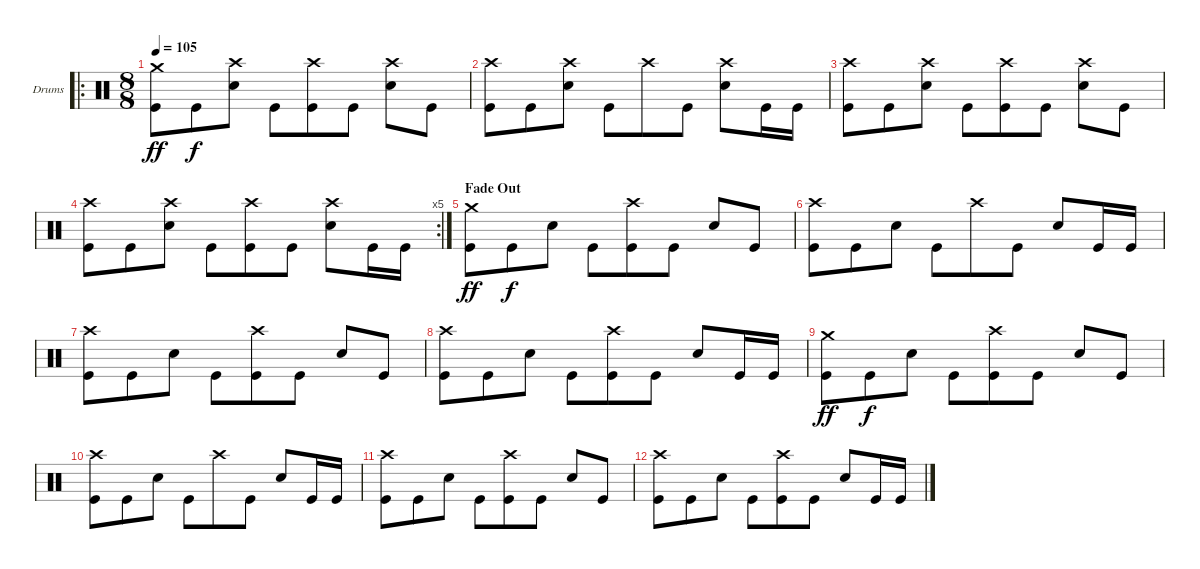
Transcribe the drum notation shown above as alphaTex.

\bracketExtendMode groupsimilarinstruments
\firstSystemTrackNameOrientation horizontal
\otherSystemsTrackNameOrientation horizontal
\track ("Drumkit" "Drums") {instrument percussion}
\staff {score}
\articulation defaults
\ro
\ts (8 8)
\tempo 105
\clef neutral
\ks c
("Crash medium (hit)" "Kick (hit)").8{dy ff} "Kick (hit)".8{dy f} ("Crash high (hit)" "Snare (hit) 2").8 "Kick (hit)".8 ("Crash high (hit)" "Kick (hit)").8 "Kick (hit)".8 ("Crash high (hit)" "Snare (hit) 2").8 "Kick (hit)".8 |
("Crash high (hit)" "Kick (hit)").8 "Kick (hit)".8 ("Crash high (hit)" "Snare (hit) 2").8 "Kick (hit)".8 "Crash high (hit)".8 "Kick (hit)".8 ("Crash high (hit)" "Snare (hit) 2").8 "Kick (hit)".16 "Kick (hit)".16 |
("Crash high (hit)" "Kick (hit)").8 "Kick (hit)".8 ("Crash high (hit)" "Snare (hit) 2").8 "Kick (hit)".8 ("Crash high (hit)" "Kick (hit)").8 "Kick (hit)".8 ("Crash high (hit)" "Snare (hit) 2").8 "Kick (hit)".8 |
\rc 5
("Crash high (hit)" "Kick (hit)").8 "Kick (hit)".8 ("Crash high (hit)" "Snare (hit) 2").8 "Kick (hit)".8 ("Crash high (hit)" "Kick (hit)").8 "Kick (hit)".8 ("Crash high (hit)" "Snare (hit) 2").8 "Kick (hit)".16 "Kick (hit)".16 |
\section ("" "Fade Out")
("Crash medium (hit)" "Kick (hit)").8{dy ff} "Kick (hit)".8{dy f} "Snare (hit) 2".8 "Kick (hit)".8 ("Crash high (hit)" "Kick (hit)").8 "Kick (hit)".8 "Snare (hit) 2".8 "Kick (hit)".8 |
("Crash high (hit)" "Kick (hit)").8 "Kick (hit)".8 "Snare (hit) 2".8 "Kick (hit)".8 "Crash high (hit)".8 "Kick (hit)".8 "Snare (hit) 2".8 "Kick (hit)".16 "Kick (hit)".16 |
("Crash high (hit)" "Kick (hit)").8 "Kick (hit)".8 "Snare (hit) 2".8 "Kick (hit)".8 ("Crash high (hit)" "Kick (hit)").8 "Kick (hit)".8 "Snare (hit) 2".8 "Kick (hit)".8 |
("Crash high (hit)" "Kick (hit)").8 "Kick (hit)".8 "Snare (hit) 2".8 "Kick (hit)".8 ("Crash high (hit)" "Kick (hit)").8 "Kick (hit)".8 "Snare (hit) 2".8 "Kick (hit)".16 "Kick (hit)".16 |
("Crash medium (hit)" "Kick (hit)").8{dy ff} "Kick (hit)".8{dy f} "Snare (hit) 2".8 "Kick (hit)".8 ("Crash high (hit)" "Kick (hit)").8 "Kick (hit)".8 "Snare (hit) 2".8 "Kick (hit)".8 |
("Crash high (hit)" "Kick (hit)").8 "Kick (hit)".8 "Snare (hit) 2".8 "Kick (hit)".8 "Crash high (hit)".8 "Kick (hit)".8 "Snare (hit) 2".8 "Kick (hit)".16 "Kick (hit)".16 |
("Crash high (hit)" "Kick (hit)").8 "Kick (hit)".8 "Snare (hit) 2".8 "Kick (hit)".8 ("Crash high (hit)" "Kick (hit)").8 "Kick (hit)".8 "Snare (hit) 2".8 "Kick (hit)".8 |
("Crash high (hit)" "Kick (hit)").8 "Kick (hit)".8 "Snare (hit) 2".8 "Kick (hit)".8 ("Crash high (hit)" "Kick (hit)").8 "Kick (hit)".8 "Snare (hit) 2".8 "Kick (hit)".16 "Kick (hit)".16
